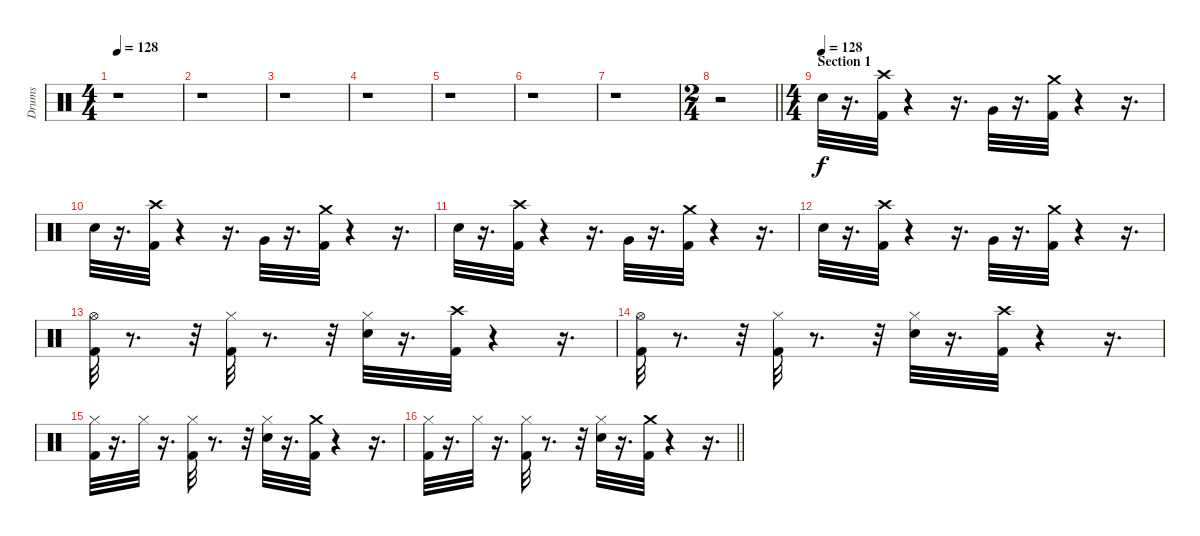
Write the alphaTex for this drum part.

\track ("Drums" "Drums") {instrument percussion}
\staff {score}
\articulation defaults
\ts (4 4)
\tempo 128
\clef neutral
\ks c
r.1{dy f} |
r.1 |
r.1 |
r.1 |
r.1 |
r.1 |
r.1 |
\ts (2 4)
\barLineRight lightlight
r.2 |
\ts (4 4)
\section ("" "Section 1")
\tempo (128)
"Snare (hit) 2".32 r.16{d} ("Crash high (hit)" "Kick (hit) 2").32 r.4 r.16{d} "Very Low Tom (hit)".32 r.16{d} ("Crash medium (hit)" "Kick (hit) 2").32 r.4 r.16{d} |
"Snare (hit) 2".32 r.16{d} ("Crash high (hit)" "Kick (hit) 2").32 r.4 r.16{d} "Very Low Tom (hit)".32 r.16{d} ("Crash medium (hit)" "Kick (hit) 2").32 r.4 r.16{d} |
"Snare (hit) 2".32 r.16{d} ("Crash high (hit)" "Kick (hit) 2").32 r.4 r.16{d} "Very Low Tom (hit)".32 r.16{d} ("Crash medium (hit)" "Kick (hit) 2").32 r.4 r.16{d} |
"Snare (hit) 2".32 r.16{d} ("Crash high (hit)" "Kick (hit) 2").32 r.4 r.16{d} "Very Low Tom (hit)".32 r.16{d} ("Crash medium (hit)" "Kick (hit) 2").32 r.4 r.16{d} |
("Kick (hit) 2" "Hi-Hat (open)").32 r.8{d} r.32 ("Hi-Hat (closed)" "Kick (hit) 2").32 r.8{d} r.32 ("Hi-Hat (closed)" "Snare (hit) 2").32 r.16{d} ("Kick (hit) 2" "Crash high (hit)").32 r.4 r.16{d} |
("Kick (hit) 2" "Hi-Hat (open)").32 r.8{d} r.32 ("Hi-Hat (closed)" "Kick (hit) 2").32 r.8{d} r.32 ("Hi-Hat (closed)" "Snare (hit) 2").32 r.16{d} ("Kick (hit) 2" "Crash high (hit)").32 r.4 r.16{d} |
("Hi-Hat (closed)" "Kick (hit) 2").32 r.16{d} "Hi-Hat (closed)".32 r.16{d} ("Hi-Hat (closed)" "Kick (hit) 2").32 r.8{d} r.32 ("Snare (hit) 2" "Hi-Hat (closed)").32 r.16{d} ("Crash medium (hit)" "Kick (hit) 2").32 r.4 r.16{d} |
\barLineRight lightlight
("Hi-Hat (closed)" "Kick (hit) 2").32 r.16{d} "Hi-Hat (closed)".32 r.16{d} ("Hi-Hat (closed)" "Kick (hit) 2").32 r.8{d} r.32 ("Snare (hit) 2" "Hi-Hat (closed)").32 r.16{d} ("Crash medium (hit)" "Kick (hit) 2").32 r.4 r.16{d}
